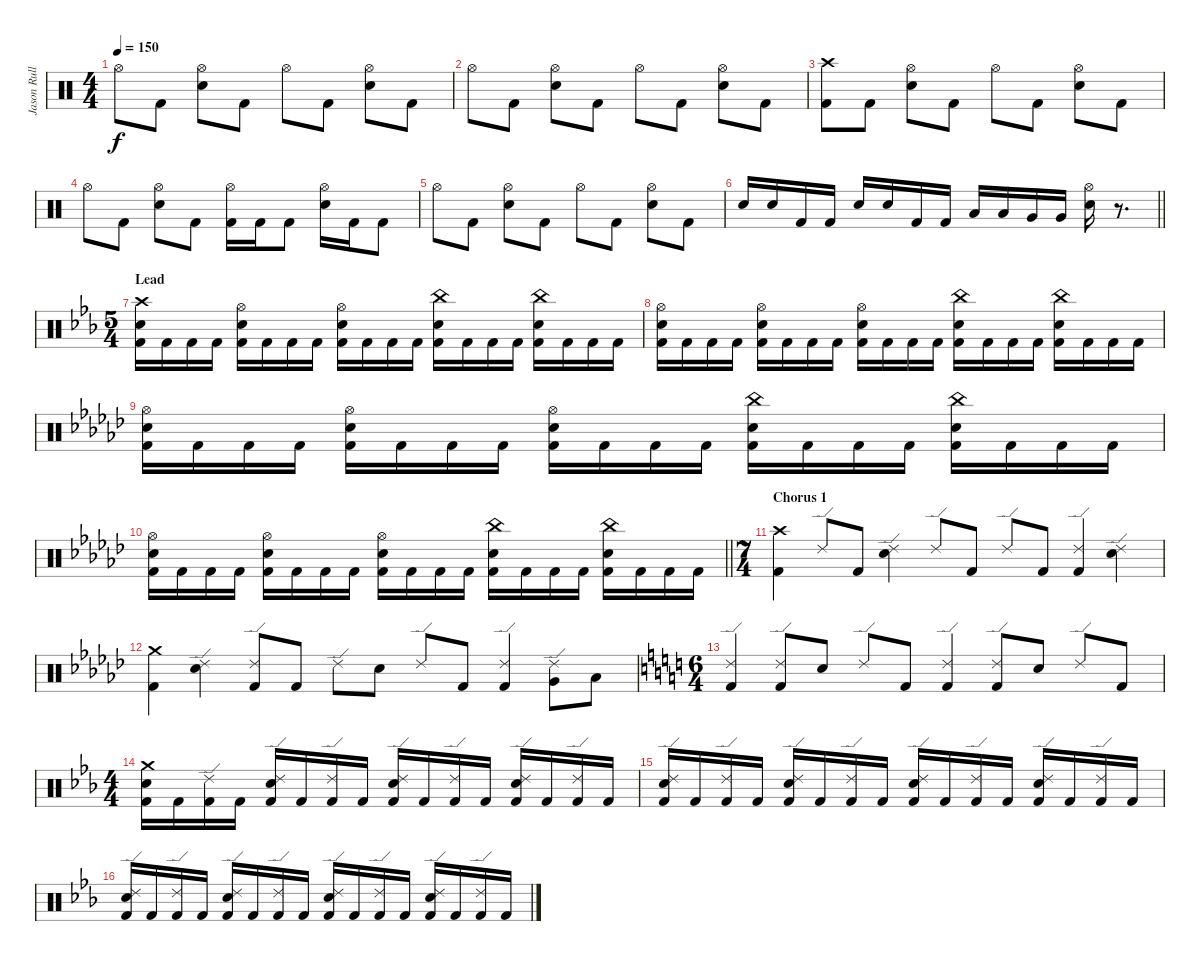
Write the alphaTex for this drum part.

\track ("Jason Rullo" "Jason Rull") {instrument percussion}
\staff {score}
\articulation defaults
\ts (4 4)
\tempo 150
\clef neutral
\ks c "Hi-Hat (open)".8{dy f} "Kick (hit) 2".8
("Hi-Hat (open)" "Electric Snare (hit)").8 "Kick (hit) 2".8 "Hi-Hat (open)".8 "Kick (hit) 2".8 ("Hi-Hat (open)" "Electric Snare (hit)").8 "Kick (hit) 2".8 |
"Hi-Hat (open)".8 "Kick (hit) 2".8 ("Hi-Hat (open)" "Electric Snare (hit)").8 "Kick (hit) 2".8 "Hi-Hat (open)".8 "Kick (hit) 2".8 ("Hi-Hat (open)" "Electric Snare (hit)").8 "Kick (hit) 2".8 |
("Crash high (hit)" "Kick (hit) 2").8 "Kick (hit) 2".8 ("Hi-Hat (open)" "Electric Snare (hit)").8 "Kick (hit) 2".8 "Hi-Hat (open)".8 "Kick (hit) 2".8 ("Hi-Hat (open)" "Electric Snare (hit)").8 "Kick (hit) 2".8 |
"Hi-Hat (open)".8 "Kick (hit) 2".8 ("Hi-Hat (open)" "Electric Snare (hit)").8 "Kick (hit) 2".8 ("Hi-Hat (open)" "Kick (hit) 2").16 "Kick (hit) 2".16 "Kick (hit) 2".8 ("Hi-Hat (open)" "Electric Snare (hit)").16 "Kick (hit) 2".16 "Kick (hit) 2".8 |
"Hi-Hat (open)".8 "Kick (hit) 2".8 ("Hi-Hat (open)" "Electric Snare (hit)").8 "Kick (hit) 2".8 "Hi-Hat (open)".8 "Kick (hit) 2".8 ("Hi-Hat (open)" "Electric Snare (hit)").8 "Kick (hit) 2".8 |
\barLineRight lightlight "Electric Snare (hit)".16 "Electric Snare (hit)".16 "Kick (hit) 2".16 "Kick (hit) 2".16 "Electric Snare (hit)".16 "Electric Snare (hit)".16 "Kick (hit) 2".16 "Kick (hit) 2".16 "Low Tom (hit)".16 "Low Tom (hit)".16 "Very Low Tom (hit)".16 "Very Low Tom (hit)".16
("Hi-Hat (open)" "Electric Snare (hit)").16 r.8{d} |
\ts (5 4)
\section ("" "Lead")
\ks cminor
("Crash high (hit)" "Electric Snare (hit)" "Kick (hit) 2").16 "Kick (hit) 2".16 "Kick (hit) 2".16 "Kick (hit) 2".16 ("Hi-Hat (open)" "Electric Snare (hit)" "Kick (hit) 2").16 "Kick (hit) 2".16 "Kick (hit) 2".16 "Kick (hit) 2".16 ("Hi-Hat (open)" "Electric Snare (hit)" "Kick (hit) 2").16 "Kick (hit) 2".16 "Kick (hit) 2".16 "Kick (hit) 2".16 ("China (hit)" "Electric Snare (hit)" "Kick (hit) 2").16 "Kick (hit) 2".16 "Kick (hit) 2".16 "Kick (hit) 2".16 ("China (hit)" "Electric Snare (hit)" "Kick (hit) 2").16 "Kick (hit) 2".16 "Kick (hit) 2".16 "Kick (hit) 2".16 |
("Hi-Hat (open)" "Electric Snare (hit)" "Kick (hit) 2").16 "Kick (hit) 2".16 "Kick (hit) 2".16 "Kick (hit) 2".16 ("Hi-Hat (open)" "Electric Snare (hit)" "Kick (hit) 2").16 "Kick (hit) 2".16 "Kick (hit) 2".16 "Kick (hit) 2".16 ("Hi-Hat (open)" "Electric Snare (hit)" "Kick (hit) 2").16 "Kick (hit) 2".16 "Kick (hit) 2".16 "Kick (hit) 2".16 ("China (hit)" "Electric Snare (hit)" "Kick (hit) 2").16 "Kick (hit) 2".16 "Kick (hit) 2".16 "Kick (hit) 2".16 ("China (hit)" "Electric Snare (hit)" "Kick (hit) 2").16 "Kick (hit) 2".16 "Kick (hit) 2".16 "Kick (hit) 2".16 |
\ks ebminor
("Hi-Hat (open)" "Electric Snare (hit)" "Kick (hit) 2").16 "Kick (hit) 2".16 "Kick (hit) 2".16 "Kick (hit) 2".16 ("Hi-Hat (open)" "Electric Snare (hit)" "Kick (hit) 2").16 "Kick (hit) 2".16 "Kick (hit) 2".16 "Kick (hit) 2".16 ("Hi-Hat (open)" "Electric Snare (hit)" "Kick (hit) 2").16 "Kick (hit) 2".16 "Kick (hit) 2".16 "Kick (hit) 2".16 ("China (hit)" "Electric Snare (hit)" "Kick (hit) 2").16 "Kick (hit) 2".16 "Kick (hit) 2".16 "Kick (hit) 2".16 ("China (hit)" "Electric Snare (hit)" "Kick (hit) 2").16 "Kick (hit) 2".16 "Kick (hit) 2".16 "Kick (hit) 2".16 |
\barLineRight lightlight
("Hi-Hat (open)" "Electric Snare (hit)" "Kick (hit) 2").16 "Kick (hit) 2".16 "Kick (hit) 2".16 "Kick (hit) 2".16 ("Hi-Hat (open)" "Electric Snare (hit)" "Kick (hit) 2").16 "Kick (hit) 2".16 "Kick (hit) 2".16 "Kick (hit) 2".16 ("Hi-Hat (open)" "Electric Snare (hit)" "Kick (hit) 2").16 "Kick (hit) 2".16 "Kick (hit) 2".16 "Kick (hit) 2".16 ("China (hit)" "Electric Snare (hit)" "Kick (hit) 2").16 "Kick (hit) 2".16 "Kick (hit) 2".16 "Kick (hit) 2".16 ("China (hit)" "Electric Snare (hit)" "Kick (hit) 2").16 "Kick (hit) 2".16 "Kick (hit) 2".16 "Kick (hit) 2".16 |
\ts (7 4)
\section ("" "Chorus 1")
("Crash high (hit)" "Kick (hit) 2").4{volume 16 balance 8} "Ride (edge) 2".8 "Kick (hit) 2".8 ("Ride (edge) 2" "Electric Snare (hit)").4 "Ride (edge) 2".8 "Kick (hit) 2".8 "Ride (edge) 2".8 "Kick (hit) 2".8 ("Ride (edge) 2" "Kick (hit) 2").4 ("Ride (edge) 2" "Electric Snare (hit)").4 |
("Crash medium (hit)" "Kick (hit) 2").4 ("Ride (edge) 2" "Electric Snare (hit)").4 ("Ride (edge) 2" "Kick (hit) 2").8 "Kick (hit) 2".8 "Ride (edge) 2".8 "Electric Snare (hit)".8 "Ride (edge) 2".8 "Kick (hit) 2".8 ("Ride (edge) 2" "Kick (hit) 2").4 ("Ride (edge) 2" "Very Low Tom (hit)").8 "Low Floor Tom (hit)".8 |
\ts (6 4)
\ks c
("Ride (edge) 2" "Kick (hit) 2").4 ("Ride (edge) 2" "Kick (hit) 2").8 "Electric Snare (hit)".8 "Ride (edge) 2".8 "Kick (hit) 2".8 ("Ride (edge) 2" "Kick (hit) 2").4 ("Ride (edge) 2" "Kick (hit) 2").8 "Electric Snare (hit)".8 "Ride (edge) 2".8 "Kick (hit) 2".8 |
\ts (4 4)
\ks cminor
("Crash medium (hit)" "Electric Snare (hit)" "Kick (hit) 2").16 "Kick (hit) 2".16 ("Ride (edge) 2" "Kick (hit) 2").16 "Kick (hit) 2".16 ("Ride (edge) 2" "Electric Snare (hit)" "Kick (hit) 2").16 "Kick (hit) 2".16 ("Ride (edge) 2" "Kick (hit) 2").16 "Kick (hit) 2".16 ("Ride (edge) 2" "Electric Snare (hit)" "Kick (hit) 2").16 "Kick (hit) 2".16 ("Ride (edge) 2" "Kick (hit) 2").16 "Kick (hit) 2".16 ("Ride (edge) 2" "Electric Snare (hit)" "Kick (hit) 2").16 "Kick (hit) 2".16 ("Ride (edge) 2" "Kick (hit) 2").16 "Kick (hit) 2".16 |
("Ride (edge) 2" "Electric Snare (hit)" "Kick (hit) 2").16 "Kick (hit) 2".16 ("Ride (edge) 2" "Kick (hit) 2").16 "Kick (hit) 2".16 ("Ride (edge) 2" "Electric Snare (hit)" "Kick (hit) 2").16 "Kick (hit) 2".16 ("Ride (edge) 2" "Kick (hit) 2").16 "Kick (hit) 2".16 ("Ride (edge) 2" "Electric Snare (hit)" "Kick (hit) 2").16 "Kick (hit) 2".16 ("Ride (edge) 2" "Kick (hit) 2").16 "Kick (hit) 2".16 ("Ride (edge) 2" "Electric Snare (hit)" "Kick (hit) 2").16 "Kick (hit) 2".16 ("Ride (edge) 2" "Kick (hit) 2").16 "Kick (hit) 2".16 |
("Ride (edge) 2" "Electric Snare (hit)" "Kick (hit) 2").16 "Kick (hit) 2".16 ("Ride (edge) 2" "Kick (hit) 2").16 "Kick (hit) 2".16 ("Ride (edge) 2" "Electric Snare (hit)" "Kick (hit) 2").16 "Kick (hit) 2".16 ("Ride (edge) 2" "Kick (hit) 2").16 "Kick (hit) 2".16 ("Ride (edge) 2" "Electric Snare (hit)" "Kick (hit) 2").16 "Kick (hit) 2".16 ("Ride (edge) 2" "Kick (hit) 2").16 "Kick (hit) 2".16 ("Ride (edge) 2" "Electric Snare (hit)" "Kick (hit) 2").16 "Kick (hit) 2".16 ("Ride (edge) 2" "Kick (hit) 2").16 "Kick (hit) 2".16
